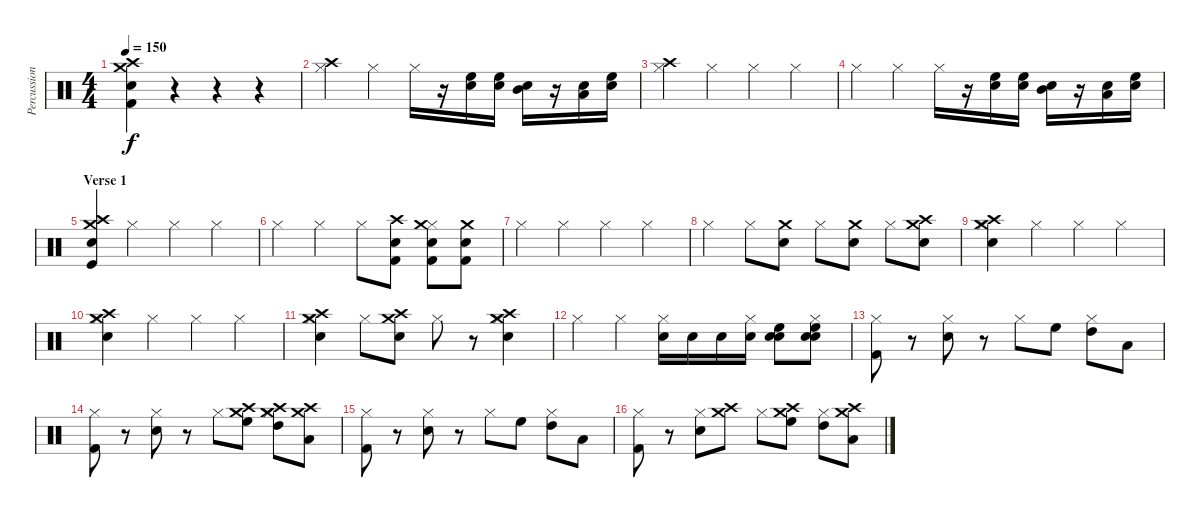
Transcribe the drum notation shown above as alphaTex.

\track ("Percussion" "Percussion") {instrument percussion}
\staff {score}
\articulation defaults
\ts (4 4)
\tempo 150
\clef neutral
\ks c
("Kick (hit) 2" "Snare (hit) 2" "Crash high (hit)" "Crash medium (hit)").4{dy f} r.4 r.4 r.4 |
("Hi-Hat (closed)" "Crash high (hit)").4 "Hi-Hat (closed)".4 "Hi-Hat (closed)".16 r.16 ("High Floor Tom (hit)" "Snare (hit) 2").16 ("High Floor Tom (hit)" "Snare (hit) 2").16 ("Mid Tom (hit)" "Snare (hit) 2").16 r.16 ("Low Tom (hit)" "Snare (hit) 2").16 ("High Floor Tom (hit)" "Snare (hit) 2").16 |
("Hi-Hat (closed)" "Crash high (hit)").4 "Hi-Hat (closed)".4 "Hi-Hat (closed)".4 "Hi-Hat (closed)".4 |
"Hi-Hat (closed)".4 "Hi-Hat (closed)".4 "Hi-Hat (closed)".16 r.16 ("High Floor Tom (hit)" "Snare (hit) 2").16 ("High Floor Tom (hit)" "Snare (hit) 2").16 ("Mid Tom (hit)" "Snare (hit) 2").16 r.16 ("Low Tom (hit)" "Snare (hit) 2").16 ("High Floor Tom (hit)" "Snare (hit) 2").16 |
\section ("" "Verse 1")
("Snare (hit) 2" "Kick (hit)" "Crash medium (hit)" "Crash high (hit)").4 "Hi-Hat (closed)".4 "Hi-Hat (closed)".4 "Hi-Hat (closed)".4 |
"Hi-Hat (closed)".4 "Hi-Hat (closed)".4 "Hi-Hat (closed)".8 ("Kick (hit) 2" "Snare (hit) 2" "Crash high (hit)").8 ("Hi-Hat (closed)" "Kick (hit) 2" "Snare (hit) 2" "Crash medium (hit)").8 ("Kick (hit) 2" "Snare (hit) 2" "Crash medium (hit)").8 |
"Hi-Hat (closed)".4 "Hi-Hat (closed)".4 "Hi-Hat (closed)".4 "Hi-Hat (closed)".4 |
"Hi-Hat (closed)".4 "Hi-Hat (closed)".8 ("Crash medium (hit)" "Snare (hit) 2").8 "Hi-Hat (closed)".8 ("Crash medium (hit)" "Snare (hit) 2").8 "Hi-Hat (closed)".8 ("Crash high (hit)" "Crash medium (hit)" "Snare (hit) 2").8 |
("Hi-Hat (closed)" "Crash high (hit)" "Crash medium (hit)" "Snare (hit) 2").4 "Hi-Hat (closed)".4 "Hi-Hat (closed)".4 "Hi-Hat (closed)".4 |
("Hi-Hat (closed)" "Snare (hit) 2" "Crash medium (hit)" "Crash high (hit)").4 "Hi-Hat (closed)".4 "Hi-Hat (closed)".4 "Hi-Hat (closed)".4 |
("Hi-Hat (closed)" "Snare (hit) 2" "Crash medium (hit)" "Crash high (hit)").4 "Hi-Hat (closed)".8 ("Snare (hit) 2" "Crash medium (hit)" "Crash high (hit)").8 "Hi-Hat (closed)".8 r.8 ("Hi-Hat (closed)" "Snare (hit) 2" "Crash medium (hit)" "Crash high (hit)").4 |
"Hi-Hat (closed)".4 "Hi-Hat (closed)".4 ("Hi-Hat (closed)" "Snare (hit) 2").16 "Snare (hit) 2".16 "Snare (hit) 2".16 ("Hi-Hat (closed)" "Snare (hit) 2").16 ("Snare (hit)" "High Floor Tom (hit)" "Snare (hit) 2").8 ("Hi-Hat (closed)" "Snare (hit)" "High Floor Tom (hit)" "Snare (hit) 2").8 |
("Hi-Hat (closed)" "Kick (hit) 2").8 r.8 ("Hi-Hat (closed)" "Snare (hit) 2").8 r.8 "Hi-Hat (closed)".8 "High Floor Tom (hit)".8 ("Hi-Hat (closed)" "High Tom (hit)").8 "Low Tom (hit)".8 |
("Hi-Hat (closed)" "Kick (hit) 2").8 r.8 ("Hi-Hat (closed)" "Snare (hit) 2").8 r.8 "Hi-Hat (closed)".8 ("High Floor Tom (hit)" "Crash medium (hit)" "Crash high (hit)").8 ("Hi-Hat (closed)" "High Tom (hit)" "Crash medium (hit)" "Crash high (hit)").8 ("Low Tom (hit)" "Crash medium (hit)" "Crash high (hit)").8 |
("Hi-Hat (closed)" "Kick (hit) 2").8 r.8 ("Hi-Hat (closed)" "Snare (hit) 2").8 r.8 "Hi-Hat (closed)".8 "High Floor Tom (hit)".8 ("Hi-Hat (closed)" "High Tom (hit)").8 "Low Tom (hit)".8 |
("Hi-Hat (closed)" "Kick (hit) 2").8 r.8 ("Hi-Hat (closed)" "Snare (hit) 2").8 ("Crash medium (hit)" "Crash high (hit)").8 "Hi-Hat (closed)".8 ("High Floor Tom (hit)" "Crash medium (hit)" "Crash high (hit)").8 ("Hi-Hat (closed)" "High Tom (hit)").8 ("Low Tom (hit)" "Crash medium (hit)" "Crash high (hit)").8
